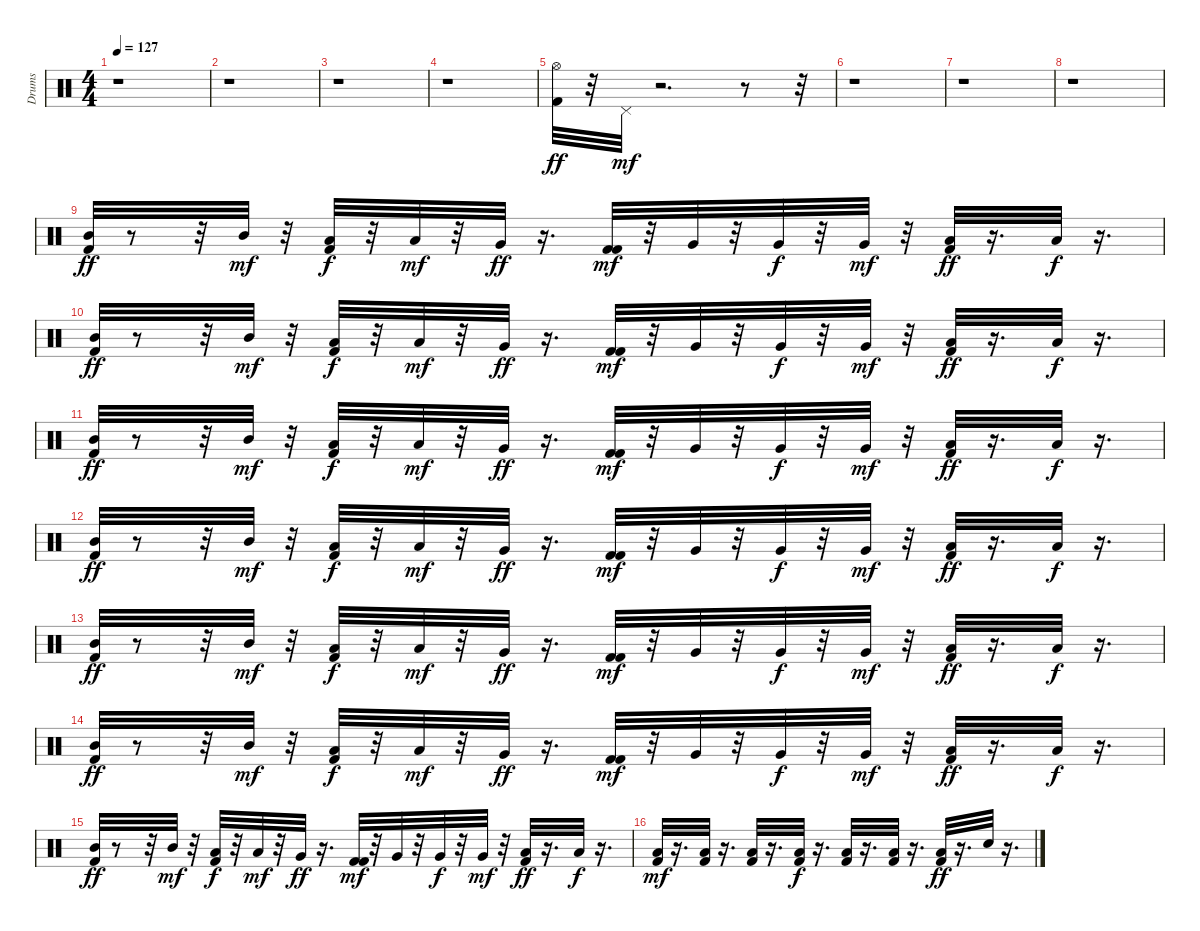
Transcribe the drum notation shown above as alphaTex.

\track ("Drums" "Drums") {instrument percussion}
\staff {score}
\articulation defaults
\ts (4 4)
\tempo 127
\clef neutral
\ks c
r.1{dy ff} |
r.1 |
r.1 |
r.1 |
("Hi-Hat (open)" "Kick (hit) 2").32 r.32 "Pedal Hi-Hat (hit)".32{dy mf} r.2{d} r.8 r.32 |
r.1 |
r.1 |
r.1 |
("Kick (hit) 2" "Mid Tom (hit)").32{dy ff} r.8 r.32 "Mid Tom (hit)".32{dy mf} r.32 ("Kick (hit) 2" "Low Tom (hit)").32{dy f} r.32 "Low Tom (hit)".32{dy mf} r.32 "Very Low Tom (hit)".32{dy ff} r.16{d} ("Kick (hit) 2" "Kick (hit) 2").32{dy mf} r.32 "Very Low Tom (hit)".32 r.32 "Very Low Tom (hit)".32{dy f} r.32 "Very Low Tom (hit)".32{dy mf} r.32 ("Low Floor Tom (hit)" "Kick (hit) 2").32{dy ff} r.16{d} "Low Floor Tom (hit)".32{dy f} r.16{d} |
("Kick (hit) 2" "Mid Tom (hit)").32{dy ff} r.8 r.32 "Mid Tom (hit)".32{dy mf} r.32 ("Kick (hit) 2" "Low Tom (hit)").32{dy f} r.32 "Low Tom (hit)".32{dy mf} r.32 "Very Low Tom (hit)".32{dy ff} r.16{d} ("Kick (hit) 2" "Kick (hit) 2").32{dy mf} r.32 "Very Low Tom (hit)".32 r.32 "Very Low Tom (hit)".32{dy f} r.32 "Very Low Tom (hit)".32{dy mf} r.32 ("Low Floor Tom (hit)" "Kick (hit) 2").32{dy ff} r.16{d} "Low Floor Tom (hit)".32{dy f} r.16{d} |
("Kick (hit) 2" "Mid Tom (hit)").32{dy ff} r.8 r.32 "Mid Tom (hit)".32{dy mf} r.32 ("Kick (hit) 2" "Low Tom (hit)").32{dy f} r.32 "Low Tom (hit)".32{dy mf} r.32 "Very Low Tom (hit)".32{dy ff} r.16{d} ("Kick (hit) 2" "Kick (hit) 2").32{dy mf} r.32 "Very Low Tom (hit)".32 r.32 "Very Low Tom (hit)".32{dy f} r.32 "Very Low Tom (hit)".32{dy mf} r.32 ("Low Floor Tom (hit)" "Kick (hit) 2").32{dy ff} r.16{d} "Low Floor Tom (hit)".32{dy f} r.16{d} |
("Kick (hit) 2" "Mid Tom (hit)").32{dy ff} r.8 r.32 "Mid Tom (hit)".32{dy mf} r.32 ("Kick (hit) 2" "Low Tom (hit)").32{dy f} r.32 "Low Tom (hit)".32{dy mf} r.32 "Very Low Tom (hit)".32{dy ff} r.16{d} ("Kick (hit) 2" "Kick (hit) 2").32{dy mf} r.32 "Very Low Tom (hit)".32 r.32 "Very Low Tom (hit)".32{dy f} r.32 "Very Low Tom (hit)".32{dy mf} r.32 ("Low Floor Tom (hit)" "Kick (hit) 2").32{dy ff} r.16{d} "Low Floor Tom (hit)".32{dy f} r.16{d} |
("Kick (hit) 2" "Mid Tom (hit)").32{dy ff} r.8 r.32 "Mid Tom (hit)".32{dy mf} r.32 ("Kick (hit) 2" "Low Tom (hit)").32{dy f} r.32 "Low Tom (hit)".32{dy mf} r.32 "Very Low Tom (hit)".32{dy ff} r.16{d} ("Kick (hit) 2" "Kick (hit) 2").32{dy mf} r.32 "Very Low Tom (hit)".32 r.32 "Very Low Tom (hit)".32{dy f} r.32 "Very Low Tom (hit)".32{dy mf} r.32 ("Low Floor Tom (hit)" "Kick (hit) 2").32{dy ff} r.16{d} "Low Floor Tom (hit)".32{dy f} r.16{d} |
("Kick (hit) 2" "Mid Tom (hit)").32{dy ff} r.8 r.32 "Mid Tom (hit)".32{dy mf} r.32 ("Kick (hit) 2" "Low Tom (hit)").32{dy f} r.32 "Low Tom (hit)".32{dy mf} r.32 "Very Low Tom (hit)".32{dy ff} r.16{d} ("Kick (hit) 2" "Kick (hit) 2").32{dy mf} r.32 "Very Low Tom (hit)".32 r.32 "Very Low Tom (hit)".32{dy f} r.32 "Very Low Tom (hit)".32{dy mf} r.32 ("Low Floor Tom (hit)" "Kick (hit) 2").32{dy ff} r.16{d} "Low Floor Tom (hit)".32{dy f} r.16{d} |
("Kick (hit) 2" "Mid Tom (hit)").32{dy ff} r.8 r.32 "Mid Tom (hit)".32{dy mf} r.32 ("Kick (hit) 2" "Low Tom (hit)").32{dy f} r.32 "Low Tom (hit)".32{dy mf} r.32 "Very Low Tom (hit)".32{dy ff} r.16{d} ("Kick (hit) 2" "Kick (hit) 2").32{dy mf} r.32 "Very Low Tom (hit)".32 r.32 "Very Low Tom (hit)".32{dy f} r.32 "Very Low Tom (hit)".32{dy mf} r.32 ("Low Floor Tom (hit)" "Kick (hit) 2").32{dy ff} r.16{d} "Low Floor Tom (hit)".32{dy f} r.16{d} |
("Low Floor Tom (hit)" "Kick (hit) 2").32{dy mf} r.16{d} ("Kick (hit) 2" "Low Floor Tom (hit)").32 r.16{d} ("Kick (hit) 2" "Low Floor Tom (hit)").32 r.16{d} ("Kick (hit) 2" "Low Floor Tom (hit)").32{dy f} r.16{d} ("Low Floor Tom (hit)" "Kick (hit) 2").32 r.16{d} ("Low Floor Tom (hit)" "Kick (hit) 2").32 r.16{d} ("Low Floor Tom (hit)" "Kick (hit) 2").32{dy ff} r.16{d} "Snare (hit) 2".32 r.16{d}
